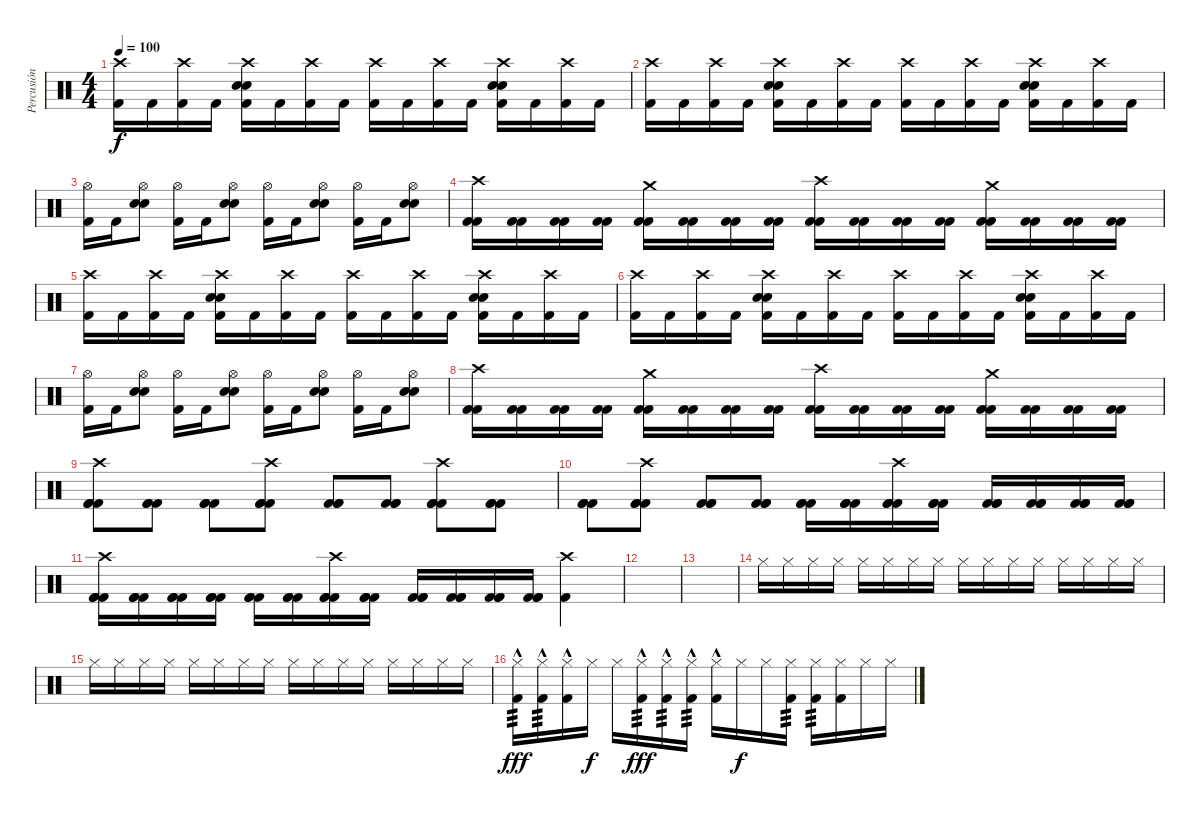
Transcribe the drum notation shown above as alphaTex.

\track ("Percusión" "Percusión") {instrument percussion}
\staff {score}
\articulation defaults
\ts (4 4)
\tempo 100
\clef neutral
\ks c
("Crash high (hit)" "Kick (hit) 2").16{dy f} "Kick (hit) 2".16 ("Crash high (hit)" "Kick (hit) 2").16 "Kick (hit) 2".16 ("Crash high (hit)" "Electric Snare (hit)" "Electric Snare (hit)" "Kick (hit) 2").16 "Kick (hit) 2".16 ("Crash high (hit)" "Kick (hit) 2").16 "Kick (hit) 2".16 ("Crash high (hit)" "Kick (hit) 2").16 "Kick (hit) 2".16 ("Crash high (hit)" "Kick (hit) 2").16 "Kick (hit) 2".16 ("Crash high (hit)" "Electric Snare (hit)" "Electric Snare (hit)" "Kick (hit) 2").16 "Kick (hit) 2".16 ("Crash high (hit)" "Kick (hit) 2").16 "Kick (hit) 2".16 |
("Crash high (hit)" "Kick (hit) 2").16 "Kick (hit) 2".16 ("Crash high (hit)" "Kick (hit) 2").16 "Kick (hit) 2".16 ("Crash high (hit)" "Electric Snare (hit)" "Electric Snare (hit)" "Kick (hit) 2").16 "Kick (hit) 2".16 ("Crash high (hit)" "Kick (hit) 2").16 "Kick (hit) 2".16 ("Crash high (hit)" "Kick (hit) 2").16 "Kick (hit) 2".16 ("Crash high (hit)" "Kick (hit) 2").16 "Kick (hit) 2".16 ("Crash high (hit)" "Electric Snare (hit)" "Electric Snare (hit)" "Kick (hit) 2").16 "Kick (hit) 2".16 ("Crash high (hit)" "Kick (hit) 2").16 "Kick (hit) 2".16 |
("Hi-Hat (open)" "Kick (hit) 2").16 "Kick (hit) 2".16 ("Hi-Hat (open)" "Electric Snare (hit)" "Electric Snare (hit)").8 ("Hi-Hat (open)" "Kick (hit) 2").16 "Kick (hit) 2".16 ("Hi-Hat (open)" "Electric Snare (hit)" "Electric Snare (hit)").8 ("Hi-Hat (open)" "Kick (hit) 2").16 "Kick (hit) 2".16 ("Hi-Hat (open)" "Electric Snare (hit)" "Electric Snare (hit)").8 ("Hi-Hat (open)" "Kick (hit) 2").16 "Kick (hit) 2".16 ("Hi-Hat (open)" "Electric Snare (hit)" "Electric Snare (hit)").8 |
("Crash high (hit)" "Kick (hit) 2" "Kick (hit) 2").16 ("Kick (hit) 2" "Kick (hit) 2").16 ("Kick (hit) 2" "Kick (hit) 2").16 ("Kick (hit) 2" "Kick (hit) 2").16 ("Crash medium (hit)" "Kick (hit) 2" "Kick (hit) 2").16 ("Kick (hit) 2" "Kick (hit) 2").16 ("Kick (hit) 2" "Kick (hit) 2").16 ("Kick (hit) 2" "Kick (hit) 2").16 ("Crash high (hit)" "Kick (hit) 2" "Kick (hit) 2").16 ("Kick (hit) 2" "Kick (hit) 2").16 ("Kick (hit) 2" "Kick (hit) 2").16 ("Kick (hit) 2" "Kick (hit) 2").16 ("Crash medium (hit)" "Kick (hit) 2" "Kick (hit) 2").16 ("Kick (hit) 2" "Kick (hit) 2").16 ("Kick (hit) 2" "Kick (hit) 2").16 ("Kick (hit) 2" "Kick (hit) 2").16 |
("Crash high (hit)" "Kick (hit) 2").16 "Kick (hit) 2".16 ("Crash high (hit)" "Kick (hit) 2").16 "Kick (hit) 2".16 ("Crash high (hit)" "Electric Snare (hit)" "Electric Snare (hit)" "Kick (hit) 2").16 "Kick (hit) 2".16 ("Crash high (hit)" "Kick (hit) 2").16 "Kick (hit) 2".16 ("Crash high (hit)" "Kick (hit) 2").16 "Kick (hit) 2".16 ("Crash high (hit)" "Kick (hit) 2").16 "Kick (hit) 2".16 ("Crash high (hit)" "Electric Snare (hit)" "Electric Snare (hit)" "Kick (hit) 2").16 "Kick (hit) 2".16 ("Crash high (hit)" "Kick (hit) 2").16 "Kick (hit) 2".16 |
("Crash high (hit)" "Kick (hit) 2").16 "Kick (hit) 2".16 ("Crash high (hit)" "Kick (hit) 2").16 "Kick (hit) 2".16 ("Crash high (hit)" "Electric Snare (hit)" "Electric Snare (hit)" "Kick (hit) 2").16 "Kick (hit) 2".16 ("Crash high (hit)" "Kick (hit) 2").16 "Kick (hit) 2".16 ("Crash high (hit)" "Kick (hit) 2").16 "Kick (hit) 2".16 ("Crash high (hit)" "Kick (hit) 2").16 "Kick (hit) 2".16 ("Crash high (hit)" "Electric Snare (hit)" "Electric Snare (hit)" "Kick (hit) 2").16 "Kick (hit) 2".16 ("Crash high (hit)" "Kick (hit) 2").16 "Kick (hit) 2".16 |
("Hi-Hat (open)" "Kick (hit) 2").16 "Kick (hit) 2".16 ("Hi-Hat (open)" "Electric Snare (hit)" "Electric Snare (hit)").8 ("Hi-Hat (open)" "Kick (hit) 2").16 "Kick (hit) 2".16 ("Hi-Hat (open)" "Electric Snare (hit)" "Electric Snare (hit)").8 ("Hi-Hat (open)" "Kick (hit) 2").16 "Kick (hit) 2".16 ("Hi-Hat (open)" "Electric Snare (hit)" "Electric Snare (hit)").8 ("Hi-Hat (open)" "Kick (hit) 2").16 "Kick (hit) 2".16 ("Hi-Hat (open)" "Electric Snare (hit)" "Electric Snare (hit)").8 |
("Crash high (hit)" "Kick (hit) 2" "Kick (hit) 2").16 ("Kick (hit) 2" "Kick (hit) 2").16 ("Kick (hit) 2" "Kick (hit) 2").16 ("Kick (hit) 2" "Kick (hit) 2").16 ("Crash medium (hit)" "Kick (hit) 2" "Kick (hit) 2").16 ("Kick (hit) 2" "Kick (hit) 2").16 ("Kick (hit) 2" "Kick (hit) 2").16 ("Kick (hit) 2" "Kick (hit) 2").16 ("Crash high (hit)" "Kick (hit) 2" "Kick (hit) 2").16 ("Kick (hit) 2" "Kick (hit) 2").16 ("Kick (hit) 2" "Kick (hit) 2").16 ("Kick (hit) 2" "Kick (hit) 2").16 ("Crash medium (hit)" "Kick (hit) 2" "Kick (hit) 2").16 ("Kick (hit) 2" "Kick (hit) 2").16 ("Kick (hit) 2" "Kick (hit) 2").16 ("Kick (hit) 2" "Kick (hit) 2").16 |
("Crash high (hit)" "Kick (hit) 2" "Kick (hit) 2" "Kick (hit) 2").8 ("Kick (hit) 2" "Kick (hit) 2" "Kick (hit) 2").8 ("Kick (hit) 2" "Kick (hit) 2" "Kick (hit) 2").8 ("Crash high (hit)" "Kick (hit) 2" "Kick (hit) 2" "Kick (hit) 2").8 ("Kick (hit) 2" "Kick (hit) 2" "Kick (hit) 2").8 ("Kick (hit) 2" "Kick (hit) 2" "Kick (hit) 2").8 ("Crash high (hit)" "Kick (hit) 2" "Kick (hit) 2" "Kick (hit) 2").8 ("Kick (hit) 2" "Kick (hit) 2" "Kick (hit) 2").8 |
("Kick (hit) 2" "Kick (hit) 2" "Kick (hit) 2").8 ("Crash high (hit)" "Kick (hit) 2" "Kick (hit) 2" "Kick (hit) 2").8 ("Kick (hit) 2" "Kick (hit) 2" "Kick (hit) 2").8 ("Kick (hit) 2" "Kick (hit) 2" "Kick (hit) 2").8 ("Kick (hit) 2" "Kick (hit) 2" "Kick (hit) 2").16 ("Kick (hit) 2" "Kick (hit) 2" "Kick (hit) 2").16 ("Crash high (hit)" "Kick (hit) 2" "Kick (hit) 2" "Kick (hit) 2").16 ("Kick (hit) 2" "Kick (hit) 2" "Kick (hit) 2").16 ("Kick (hit) 2" "Kick (hit) 2" "Kick (hit) 2").16 ("Kick (hit) 2" "Kick (hit) 2" "Kick (hit) 2").16 ("Kick (hit) 2" "Kick (hit) 2" "Kick (hit) 2").16 ("Kick (hit) 2" "Kick (hit) 2" "Kick (hit) 2").16 |
("Crash high (hit)" "Kick (hit) 2" "Kick (hit) 2" "Kick (hit) 2").16 ("Kick (hit) 2" "Kick (hit) 2" "Kick (hit) 2").16 ("Kick (hit) 2" "Kick (hit) 2" "Kick (hit) 2").16 ("Kick (hit) 2" "Kick (hit) 2" "Kick (hit) 2").16 ("Kick (hit) 2" "Kick (hit) 2" "Kick (hit) 2").16 ("Kick (hit) 2" "Kick (hit) 2" "Kick (hit) 2").16 ("Crash high (hit)" "Kick (hit) 2" "Kick (hit) 2" "Kick (hit) 2").16 ("Kick (hit) 2" "Kick (hit) 2" "Kick (hit) 2").16 ("Kick (hit) 2" "Kick (hit) 2" "Kick (hit) 2").16 ("Kick (hit) 2" "Kick (hit) 2" "Kick (hit) 2").16 ("Kick (hit) 2" "Kick (hit) 2" "Kick (hit) 2").16 ("Kick (hit) 2" "Kick (hit) 2" "Kick (hit) 2").16 ("Crash high (hit)" "Kick (hit) 2").4 |
|
|
"Hi-Hat (closed)".16 "Hi-Hat (closed)".16 "Hi-Hat (closed)".16 "Hi-Hat (closed)".16 "Hi-Hat (closed)".16 "Hi-Hat (closed)".16 "Hi-Hat (closed)".16 "Hi-Hat (closed)".16 "Hi-Hat (closed)".16 "Hi-Hat (closed)".16 "Hi-Hat (closed)".16 "Hi-Hat (closed)".16 "Hi-Hat (closed)".16 "Hi-Hat (closed)".16 "Hi-Hat (closed)".16 "Hi-Hat (closed)".16 |
"Hi-Hat (closed)".16 "Hi-Hat (closed)".16 "Hi-Hat (closed)".16 "Hi-Hat (closed)".16 "Hi-Hat (closed)".16 "Hi-Hat (closed)".16 "Hi-Hat (closed)".16 "Hi-Hat (closed)".16 "Hi-Hat (closed)".16 "Hi-Hat (closed)".16 "Hi-Hat (closed)".16 "Hi-Hat (closed)".16 "Hi-Hat (closed)".16 "Hi-Hat (closed)".16 "Hi-Hat (closed)".16 "Hi-Hat (closed)".16 |
("Hi-Hat (closed)" "Kick (hit) 2"{hac}).16{tp 3 dy fff} ("Hi-Hat (closed)" "Kick (hit) 2"{hac}).16{tp 3} ("Hi-Hat (closed)" "Kick (hit) 2"{hac}).16 "Hi-Hat (closed)".16{dy f} "Hi-Hat (closed)".16 ("Hi-Hat (closed)" "Kick (hit) 2"{hac}).16{tp 3 dy fff} ("Hi-Hat (closed)" "Kick (hit) 2"{hac}).16{tp 3} ("Hi-Hat (closed)" "Kick (hit) 2"{hac}).16{tp 3} ("Hi-Hat (closed)" "Kick (hit) 2"{hac}).16 "Hi-Hat (closed)".16{dy f} "Hi-Hat (closed)".16 ("Hi-Hat (closed)" "Kick (hit) 2").16{tp 3} ("Hi-Hat (closed)" "Kick (hit) 2").16{tp 3} ("Hi-Hat (closed)" "Kick (hit) 2").16 "Hi-Hat (closed)".16 "Hi-Hat (closed)".16
